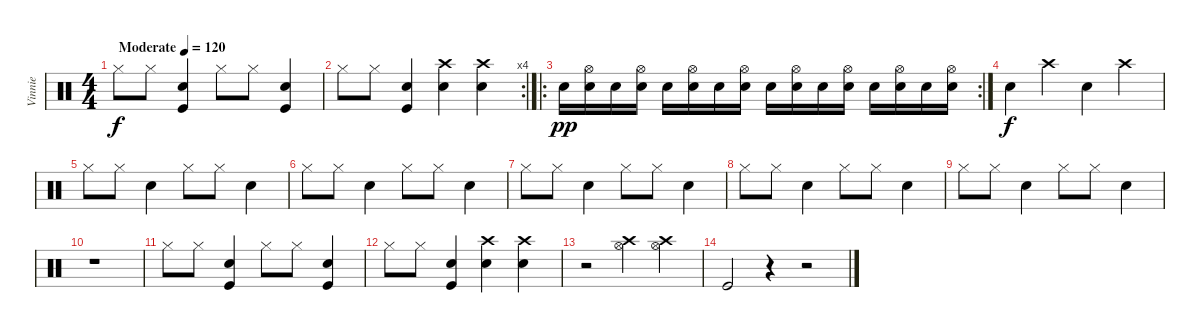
\track ("Vinnie" "Vinnie") {instrument percussion}
\staff {score}
\articulation defaults
\ts (4 4)
\tempo (120 "Moderate")
\clef neutral
\ks c "Hi-Hat (closed)".8{dy f} "Hi-Hat (closed)".8
("Snare (hit) 2" "Kick (hit)").4 "Hi-Hat (closed)".8 "Hi-Hat (closed)".8 ("Snare (hit) 2" "Kick (hit)").4 |
\rc 4 "Hi-Hat (closed)".8 "Hi-Hat (closed)".8
("Snare (hit) 2" "Kick (hit)").4 ("Crash high (hit)" "Snare (hit) 2").4 ("Crash high (hit)" "Snare (hit) 2").4 |
\ro
\rc 2 "Snare (hit) 2".16{dy pp}
("Snare (hit) 2" "Hi-Hat (open)").16 "Snare (hit) 2".16 ("Snare (hit) 2" "Hi-Hat (open)").16 "Snare (hit) 2".16 ("Snare (hit) 2" "Hi-Hat (open)").16 "Snare (hit) 2".16 ("Snare (hit) 2" "Hi-Hat (open)").16 "Snare (hit) 2".16 ("Snare (hit) 2" "Hi-Hat (open)").16 "Snare (hit) 2".16 ("Snare (hit) 2" "Hi-Hat (open)").16 "Snare (hit) 2".16 ("Snare (hit) 2" "Hi-Hat (open)").16 "Snare (hit) 2".16 ("Snare (hit) 2" "Hi-Hat (open)").16 |
"Snare (hit) 2".4{dy f} "Crash high (hit)".4 "Snare (hit) 2".4 "Crash high (hit)".4 |
"Hi-Hat (closed)".8 "Hi-Hat (closed)".8 "Snare (hit) 2".4 "Hi-Hat (closed)".8 "Hi-Hat (closed)".8 "Snare (hit) 2".4 |
"Hi-Hat (closed)".8 "Hi-Hat (closed)".8 "Snare (hit) 2".4 "Hi-Hat (closed)".8 "Hi-Hat (closed)".8 "Snare (hit) 2".4 |
"Hi-Hat (closed)".8 "Hi-Hat (closed)".8 "Snare (hit) 2".4 "Hi-Hat (closed)".8 "Hi-Hat (closed)".8 "Snare (hit) 2".4 |
"Hi-Hat (closed)".8 "Hi-Hat (closed)".8 "Snare (hit) 2".4 "Hi-Hat (closed)".8 "Hi-Hat (closed)".8 "Snare (hit) 2".4 |
"Hi-Hat (closed)".8 "Hi-Hat (closed)".8 "Snare (hit) 2".4 "Hi-Hat (closed)".8 "Hi-Hat (closed)".8 "Snare (hit) 2".4 |
r.1 |
"Hi-Hat (closed)".8 "Hi-Hat (closed)".8 ("Snare (hit) 2" "Kick (hit)").4 "Hi-Hat (closed)".8 "Hi-Hat (closed)".8 ("Snare (hit) 2" "Kick (hit)").4 |
"Hi-Hat (closed)".8 "Hi-Hat (closed)".8 ("Snare (hit) 2" "Kick (hit)").4 ("Crash high (hit)" "Snare (hit) 2").4 ("Crash high (hit)" "Snare (hit) 2").4 |
r.2 ("Hi-Hat (open)" "Crash high (hit)").4 ("Hi-Hat (open)" "Crash high (hit)").4 |
"Kick (hit)".2 r.4 r.2
